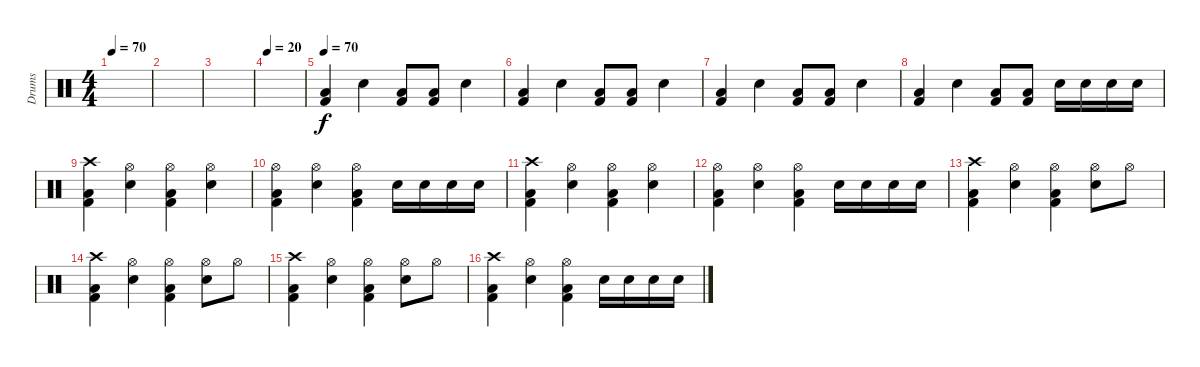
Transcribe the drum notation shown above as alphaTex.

\track ("Drums" "Drums") {instrument percussion}
\staff {score}
\articulation defaults
\ts (4 4)
\tempo 70
\clef neutral
\ks c
|
|
|
\tempo 20
|
\tempo 120
\tempo 70
("Low Floor Tom (hit)" "Kick (hit) 2").4 "Snare (hit) 2".4 ("Low Floor Tom (hit)" "Kick (hit) 2").8 ("Low Floor Tom (hit)" "Kick (hit) 2").8 "Snare (hit) 2".4 |
("Low Floor Tom (hit)" "Kick (hit) 2").4 "Snare (hit) 2".4 ("Low Floor Tom (hit)" "Kick (hit) 2").8 ("Low Floor Tom (hit)" "Kick (hit) 2").8 "Snare (hit) 2".4 |
("Low Floor Tom (hit)" "Kick (hit) 2").4 "Snare (hit) 2".4 ("Low Floor Tom (hit)" "Kick (hit) 2").8 ("Low Floor Tom (hit)" "Kick (hit) 2").8 "Snare (hit) 2".4 |
("Low Floor Tom (hit)" "Kick (hit) 2").4 "Snare (hit) 2".4 ("Low Floor Tom (hit)" "Kick (hit) 2").8 ("Low Floor Tom (hit)" "Kick (hit) 2").8 "Snare (hit) 2".16 "Snare (hit) 2".16 "Snare (hit) 2".16 "Snare (hit) 2".16 |
("Crash high (hit)" "Low Floor Tom (hit)" "Kick (hit) 2").4 ("Hi-Hat (open)" "Snare (hit) 2").4 ("Hi-Hat (open)" "Low Floor Tom (hit)" "Kick (hit) 2").4 ("Hi-Hat (open)" "Snare (hit) 2").4 |
("Hi-Hat (open)" "Low Floor Tom (hit)" "Kick (hit) 2").4 ("Hi-Hat (open)" "Snare (hit) 2").4 ("Hi-Hat (open)" "Low Floor Tom (hit)" "Kick (hit) 2").4 "Snare (hit) 2".16 "Snare (hit) 2".16 "Snare (hit) 2".16 "Snare (hit) 2".16 |
("Crash high (hit)" "Low Floor Tom (hit)" "Kick (hit) 2").4 ("Hi-Hat (open)" "Snare (hit) 2").4 ("Hi-Hat (open)" "Low Floor Tom (hit)" "Kick (hit) 2").4 ("Hi-Hat (open)" "Snare (hit) 2").4 |
("Hi-Hat (open)" "Low Floor Tom (hit)" "Kick (hit) 2").4 ("Hi-Hat (open)" "Snare (hit) 2").4 ("Hi-Hat (open)" "Low Floor Tom (hit)" "Kick (hit) 2").4 "Snare (hit) 2".16 "Snare (hit) 2".16 "Snare (hit) 2".16 "Snare (hit) 2".16 |
("Crash high (hit)" "Low Floor Tom (hit)" "Kick (hit) 2").4 ("Hi-Hat (open)" "Snare (hit) 2").4 ("Hi-Hat (open)" "Low Floor Tom (hit)" "Kick (hit) 2").4 ("Hi-Hat (open)" "Snare (hit) 2").8 "Hi-Hat (open)".8 |
("Crash high (hit)" "Low Floor Tom (hit)" "Kick (hit) 2").4 ("Hi-Hat (open)" "Snare (hit) 2").4 ("Hi-Hat (open)" "Low Floor Tom (hit)" "Kick (hit) 2").4 ("Hi-Hat (open)" "Snare (hit) 2").8 "Hi-Hat (open)".8 |
("Crash high (hit)" "Low Floor Tom (hit)" "Kick (hit) 2").4 ("Hi-Hat (open)" "Snare (hit) 2").4 ("Hi-Hat (open)" "Low Floor Tom (hit)" "Kick (hit) 2").4 ("Hi-Hat (open)" "Snare (hit) 2").8 "Hi-Hat (open)".8 |
("Crash high (hit)" "Low Floor Tom (hit)" "Kick (hit) 2").4 ("Hi-Hat (open)" "Snare (hit) 2").4 ("Hi-Hat (open)" "Low Floor Tom (hit)" "Kick (hit) 2").4 "Snare (hit) 2".16 "Snare (hit) 2".16 "Snare (hit) 2".16 "Snare (hit) 2".16
